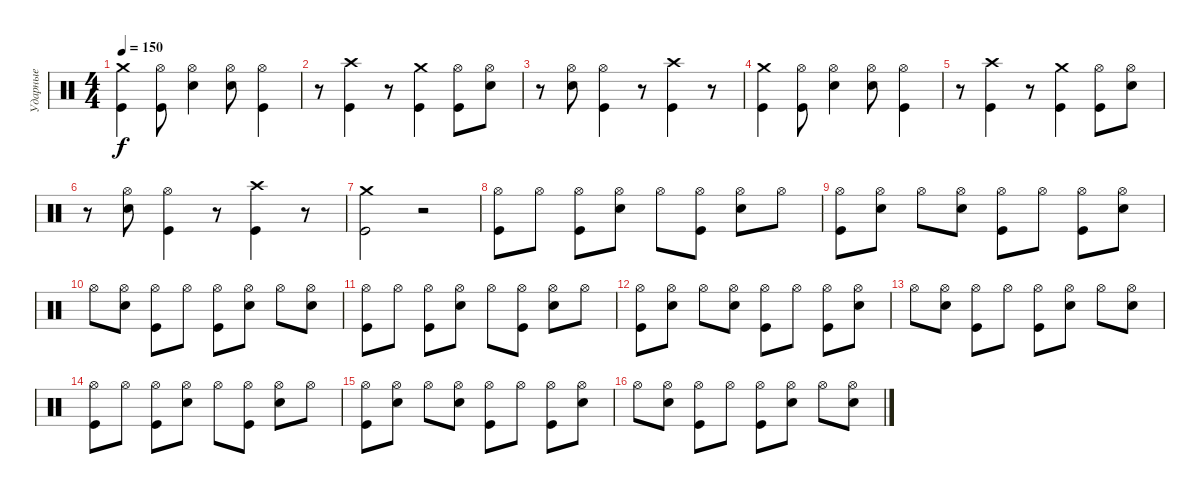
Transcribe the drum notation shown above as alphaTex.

\track ("Ударные" "Ударные") {instrument percussion}
\staff {score}
\articulation defaults
\ts (4 4)
\tempo 150
\clef neutral
\ks c
("Kick (hit)" "Crash medium (hit)").4{dy f} ("Kick (hit)" "Hi-Hat (open)").8 ("Electric Snare (hit)" "Hi-Hat (open)").4 ("Electric Snare (hit)" "Hi-Hat (open)").8 ("Kick (hit)" "Hi-Hat (open)").4 |
r.8 ("Kick (hit)" "Crash high (hit)").4 r.8 ("Kick (hit)" "Crash medium (hit)").4 ("Kick (hit)" "Hi-Hat (open)").8 ("Electric Snare (hit)" "Hi-Hat (open)").8 |
r.8 ("Electric Snare (hit)" "Hi-Hat (open)").8 ("Kick (hit)" "Hi-Hat (open)").4 r.8 ("Kick (hit)" "Crash high (hit)").4 r.8 |
("Kick (hit)" "Crash medium (hit)").4 ("Kick (hit)" "Hi-Hat (open)").8 ("Electric Snare (hit)" "Hi-Hat (open)").4 ("Electric Snare (hit)" "Hi-Hat (open)").8 ("Kick (hit)" "Hi-Hat (open)").4 |
r.8 ("Kick (hit)" "Crash high (hit)").4 r.8 ("Kick (hit)" "Crash medium (hit)").4 ("Kick (hit)" "Hi-Hat (open)").8 ("Electric Snare (hit)" "Hi-Hat (open)").8 |
r.8 ("Electric Snare (hit)" "Hi-Hat (open)").8 ("Kick (hit)" "Hi-Hat (open)").4 r.8 ("Kick (hit)" "Crash high (hit)").4 r.8 |
("Kick (hit)" "Crash medium (hit)").2 r.2 |
("Kick (hit)" "Hi-Hat (open)").8 "Hi-Hat (open)".8 ("Kick (hit)" "Hi-Hat (open)").8 ("Electric Snare (hit)" "Hi-Hat (open)").8 "Hi-Hat (open)".8 ("Kick (hit)" "Hi-Hat (open)").8 ("Electric Snare (hit)" "Hi-Hat (open)").8 "Hi-Hat (open)".8 |
("Kick (hit)" "Hi-Hat (open)").8 ("Electric Snare (hit)" "Hi-Hat (open)").8 "Hi-Hat (open)".8 ("Electric Snare (hit)" "Hi-Hat (open)").8 ("Kick (hit)" "Hi-Hat (open)").8 "Hi-Hat (open)".8 ("Kick (hit)" "Hi-Hat (open)").8 ("Electric Snare (hit)" "Hi-Hat (open)").8 |
"Hi-Hat (open)".8 ("Electric Snare (hit)" "Hi-Hat (open)").8 ("Kick (hit)" "Hi-Hat (open)").8 "Hi-Hat (open)".8 ("Kick (hit)" "Hi-Hat (open)").8 ("Electric Snare (hit)" "Hi-Hat (open)").8 "Hi-Hat (open)".8 ("Electric Snare (hit)" "Hi-Hat (open)").8 |
("Kick (hit)" "Hi-Hat (open)").8 "Hi-Hat (open)".8 ("Kick (hit)" "Hi-Hat (open)").8 ("Electric Snare (hit)" "Hi-Hat (open)").8 "Hi-Hat (open)".8 ("Kick (hit)" "Hi-Hat (open)").8 ("Electric Snare (hit)" "Hi-Hat (open)").8 "Hi-Hat (open)".8 |
("Kick (hit)" "Hi-Hat (open)").8 ("Electric Snare (hit)" "Hi-Hat (open)").8 "Hi-Hat (open)".8 ("Electric Snare (hit)" "Hi-Hat (open)").8 ("Kick (hit)" "Hi-Hat (open)").8 "Hi-Hat (open)".8 ("Kick (hit)" "Hi-Hat (open)").8 ("Electric Snare (hit)" "Hi-Hat (open)").8 |
"Hi-Hat (open)".8 ("Electric Snare (hit)" "Hi-Hat (open)").8 ("Kick (hit)" "Hi-Hat (open)").8 "Hi-Hat (open)".8 ("Kick (hit)" "Hi-Hat (open)").8 ("Electric Snare (hit)" "Hi-Hat (open)").8 "Hi-Hat (open)".8 ("Electric Snare (hit)" "Hi-Hat (open)").8 |
("Kick (hit)" "Hi-Hat (open)").8 "Hi-Hat (open)".8 ("Kick (hit)" "Hi-Hat (open)").8 ("Electric Snare (hit)" "Hi-Hat (open)").8 "Hi-Hat (open)".8 ("Kick (hit)" "Hi-Hat (open)").8 ("Electric Snare (hit)" "Hi-Hat (open)").8 "Hi-Hat (open)".8 |
("Kick (hit)" "Hi-Hat (open)").8 ("Electric Snare (hit)" "Hi-Hat (open)").8 "Hi-Hat (open)".8 ("Electric Snare (hit)" "Hi-Hat (open)").8 ("Kick (hit)" "Hi-Hat (open)").8 "Hi-Hat (open)".8 ("Kick (hit)" "Hi-Hat (open)").8 ("Electric Snare (hit)" "Hi-Hat (open)").8 |
"Hi-Hat (open)".8 ("Electric Snare (hit)" "Hi-Hat (open)").8 ("Kick (hit)" "Hi-Hat (open)").8 "Hi-Hat (open)".8 ("Kick (hit)" "Hi-Hat (open)").8 ("Electric Snare (hit)" "Hi-Hat (open)").8 "Hi-Hat (open)".8 ("Electric Snare (hit)" "Hi-Hat (open)").8
